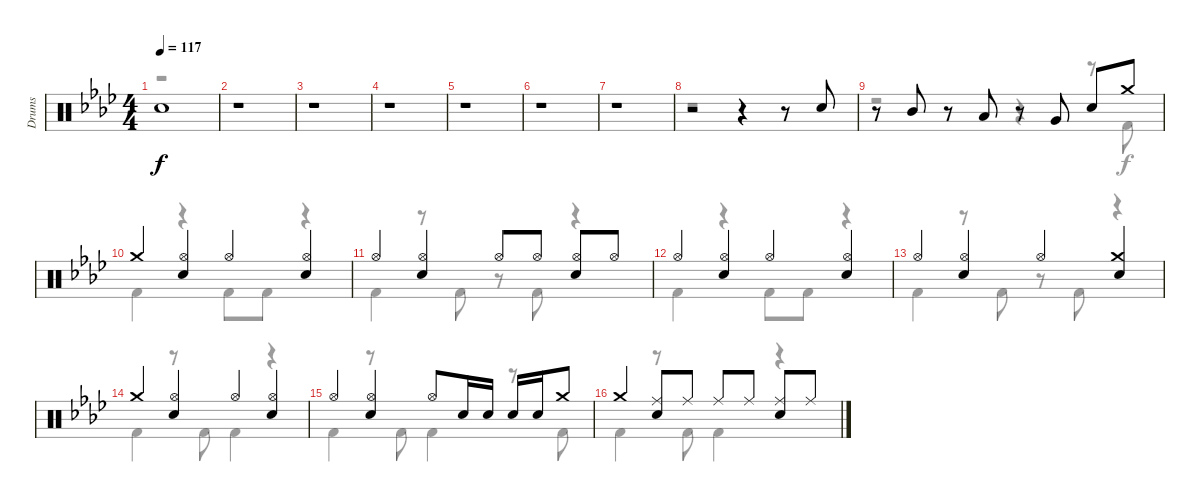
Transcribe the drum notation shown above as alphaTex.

\track ("Drums" "Drums") {instrument percussion}
\staff {score}
\articulation defaults
\voice
\ts (4 4)
\tempo 117
\clef neutral
\ks ab "Snare (hit)"{t}.1{dy f}
|
r.1 |
r.1 |
r.1 |
r.1 |
r.1 |
r.1 |
r.2 r.4 r.8 "Snare (hit) 2".8 |
r.8 "Mid Tom (hit)".8 r.8 "Low Tom (hit)".8 r.8 "Very Low Tom (hit)".8 "Snare (hit) 2".8 "Crash medium (hit)".8 |
"Crash medium (hit)".4 ("Hi-Hat (open)" "Snare (hit) 2").4 "Hi-Hat (open)".4 ("Hi-Hat (open)" "Snare (hit) 2").4 |
"Hi-Hat (open)".4 ("Hi-Hat (open)" "Snare (hit) 2").4 "Hi-Hat (open)".8 "Hi-Hat (open)".8 ("Hi-Hat (open)" "Snare (hit) 2").8 "Hi-Hat (open)".8 |
"Hi-Hat (open)".4 ("Hi-Hat (open)" "Snare (hit) 2").4 "Hi-Hat (open)".4 ("Hi-Hat (open)" "Snare (hit) 2").4 |
"Hi-Hat (open)".4 ("Hi-Hat (open)" "Snare (hit) 2").4 "Hi-Hat (open)".4 ("Crash medium (hit)" "Snare (hit) 2").4 |
"Crash medium (hit)".4 ("Hi-Hat (open)" "Snare (hit) 2").4 "Hi-Hat (open)".4 ("Hi-Hat (open)" "Snare (hit) 2").4 |
"Hi-Hat (open)".4 ("Hi-Hat (open)" "Snare (hit) 2").4 "Hi-Hat (open)".8 "Snare (hit) 2".16 "Snare (hit) 2".16 "Snare (hit) 2".16 "Snare (hit) 2".16 "Crash medium (hit)".8 |
"Crash medium (hit)".4 ("Ride (middle)" "Snare (hit) 2").8 "Ride (middle)".8 "Ride (middle)".8 "Ride (middle)".8 ("Ride (middle)" "Snare (hit) 2").8 "Ride (middle)".8
\voice
\clef neutral
\ottava regular
\simile none
\ks ab
r.1{dy f} |
r.1 |
r.1 |
r.1 |
r.1 |
r.1 |
r.1 |
r.1 |
r.2 r.4 r.8 "Kick (hit) 2".8 |
"Kick (hit) 2".4 r.4 "Kick (hit) 2".8 "Kick (hit) 2".8 r.4 |
"Kick (hit) 2".4 r.8 "Kick (hit) 2".8 r.8 "Kick (hit) 2".8 r.4 |
"Kick (hit) 2".4 r.4 "Kick (hit) 2".8 "Kick (hit) 2".8 r.4 |
"Kick (hit) 2".4 r.8 "Kick (hit) 2".8 r.8 "Kick (hit) 2".8 r.4 |
"Kick (hit) 2".4 r.8 "Kick (hit) 2".8 "Kick (hit) 2".4 r.4 |
"Kick (hit) 2".4 r.8 "Kick (hit) 2".8 "Kick (hit) 2".4 r.8 "Kick (hit) 2".8 |
"Kick (hit) 2".4 r.8 "Kick (hit) 2".8 "Kick (hit) 2".4 r.4
